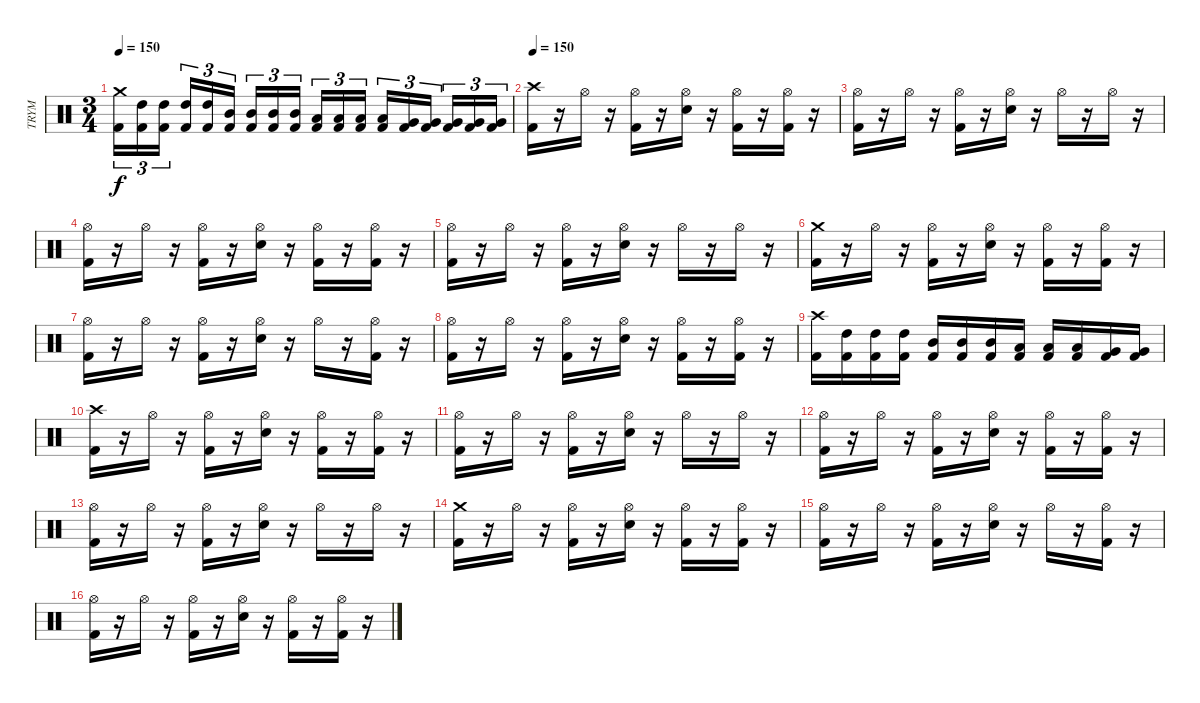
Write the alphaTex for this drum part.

\track ("TRYM" "TRYM") {instrument percussion}
\staff {score}
\articulation defaults
\ts (3 4)
\tempo 150
\clef neutral
\ks c
("Kick (hit) 2" "Crash medium (hit)").16{tu (3 2) dy f} ("Kick (hit) 2" "High Tom (hit)").16{tu (3 2)} ("Kick (hit) 2" "High Tom (hit)").16{tu (3 2)} ("Kick (hit) 2" "High Tom (hit)").16{tu (3 2)} ("Kick (hit) 2" "High Tom (hit)").16{tu (3 2)} ("Kick (hit) 2" "Mid Tom (hit)").16{tu (3 2)} ("Kick (hit) 2" "Mid Tom (hit)").16{tu (3 2)} ("Kick (hit) 2" "Mid Tom (hit)").16{tu (3 2)} ("Kick (hit) 2" "Mid Tom (hit)").16{tu (3 2)} ("Kick (hit) 2" "Low Tom (hit)").16{tu (3 2)} ("Kick (hit) 2" "Low Tom (hit)").16{tu (3 2)} ("Kick (hit) 2" "Low Tom (hit)").16{tu (3 2)} ("Kick (hit) 2" "Low Tom (hit)").16{tu (3 2)} ("Kick (hit) 2" "Very Low Tom (hit)").16{tu (3 2)} ("Kick (hit) 2" "Very Low Tom (hit)").16{tu (3 2)} ("Kick (hit) 2" "Very Low Tom (hit)").16{tu (3 2)} ("Kick (hit) 2" "Very Low Tom (hit)").16{tu (3 2)} ("Kick (hit) 2" "Very Low Tom (hit)").16{tu (3 2)} |
\tempo 150
("Kick (hit) 2" "Crash high (hit)").16 r.16 "Hi-Hat (open)".16 r.16 ("Kick (hit) 2" "Hi-Hat (open)").16 r.16 ("Hi-Hat (open)" "Electric Snare (hit)").16 r.16 ("Kick (hit) 2" "Hi-Hat (open)").16 r.16 ("Kick (hit) 2" "Hi-Hat (open)").16 r.16 |
("Kick (hit) 2" "Hi-Hat (open)").16 r.16 "Hi-Hat (open)".16 r.16 ("Kick (hit) 2" "Hi-Hat (open)").16 r.16 ("Hi-Hat (open)" "Electric Snare (hit)").16 r.16 "Hi-Hat (open)".16 r.16 "Hi-Hat (open)".16 r.16 |
("Kick (hit) 2" "Hi-Hat (open)").16 r.16 "Hi-Hat (open)".16 r.16 ("Kick (hit) 2" "Hi-Hat (open)").16 r.16 ("Hi-Hat (open)" "Electric Snare (hit)").16 r.16 ("Kick (hit) 2" "Hi-Hat (open)").16 r.16 ("Kick (hit) 2" "Hi-Hat (open)").16 r.16 |
("Kick (hit) 2" "Hi-Hat (open)").16 r.16 "Hi-Hat (open)".16 r.16 ("Kick (hit) 2" "Hi-Hat (open)").16 r.16 ("Hi-Hat (open)" "Electric Snare (hit)").16 r.16 "Hi-Hat (open)".16 r.16 "Hi-Hat (open)".16 r.16 |
("Kick (hit) 2" "Crash medium (hit)").16 r.16 "Hi-Hat (open)".16 r.16 ("Kick (hit) 2" "Hi-Hat (open)").16 r.16 ("Hi-Hat (open)" "Electric Snare (hit)").16 r.16 ("Kick (hit) 2" "Hi-Hat (open)").16 r.16 ("Kick (hit) 2" "Hi-Hat (open)").16 r.16 |
("Kick (hit) 2" "Hi-Hat (open)").16 r.16 "Hi-Hat (open)".16 r.16 ("Kick (hit) 2" "Hi-Hat (open)").16 r.16 ("Hi-Hat (open)" "Electric Snare (hit)").16 r.16 "Hi-Hat (open)".16 r.16 ("Kick (hit) 2" "Hi-Hat (open)").16 r.16 |
("Kick (hit) 2" "Hi-Hat (open)").16 r.16 "Hi-Hat (open)".16 r.16 ("Kick (hit) 2" "Hi-Hat (open)").16 r.16 ("Hi-Hat (open)" "Electric Snare (hit)").16 r.16 ("Kick (hit) 2" "Hi-Hat (open)").16 r.16 ("Kick (hit) 2" "Hi-Hat (open)").16 r.16 |
("Kick (hit) 2" "Crash high (hit)").16 ("Kick (hit) 2" "High Tom (hit)").16 ("Kick (hit) 2" "High Tom (hit)").16 ("Kick (hit) 2" "High Tom (hit)").16 ("Kick (hit) 2" "Mid Tom (hit)").16 ("Kick (hit) 2" "Mid Tom (hit)").16 ("Kick (hit) 2" "Mid Tom (hit)").16 ("Kick (hit) 2" "Low Tom (hit)").16 ("Kick (hit) 2" "Low Tom (hit)").16 ("Kick (hit) 2" "Low Tom (hit)").16 ("Kick (hit) 2" "Very Low Tom (hit)").16 ("Kick (hit) 2" "Very Low Tom (hit)").16 |
("Kick (hit) 2" "Crash high (hit)").16 r.16 "Hi-Hat (open)".16 r.16 ("Kick (hit) 2" "Hi-Hat (open)").16 r.16 ("Hi-Hat (open)" "Electric Snare (hit)").16 r.16 ("Kick (hit) 2" "Hi-Hat (open)").16 r.16 ("Kick (hit) 2" "Hi-Hat (open)").16 r.16 |
("Kick (hit) 2" "Hi-Hat (open)").16 r.16 "Hi-Hat (open)".16 r.16 ("Kick (hit) 2" "Hi-Hat (open)").16 r.16 ("Hi-Hat (open)" "Electric Snare (hit)").16 r.16 "Hi-Hat (open)".16 r.16 "Hi-Hat (open)".16 r.16 |
("Kick (hit) 2" "Hi-Hat (open)").16 r.16 "Hi-Hat (open)".16 r.16 ("Kick (hit) 2" "Hi-Hat (open)").16 r.16 ("Hi-Hat (open)" "Electric Snare (hit)").16 r.16 ("Kick (hit) 2" "Hi-Hat (open)").16 r.16 ("Kick (hit) 2" "Hi-Hat (open)").16 r.16 |
("Kick (hit) 2" "Hi-Hat (open)").16 r.16 "Hi-Hat (open)".16 r.16 ("Kick (hit) 2" "Hi-Hat (open)").16 r.16 ("Hi-Hat (open)" "Electric Snare (hit)").16 r.16 "Hi-Hat (open)".16 r.16 "Hi-Hat (open)".16 r.16 |
("Kick (hit) 2" "Crash medium (hit)").16 r.16 "Hi-Hat (open)".16 r.16 ("Kick (hit) 2" "Hi-Hat (open)").16 r.16 ("Hi-Hat (open)" "Electric Snare (hit)").16 r.16 ("Kick (hit) 2" "Hi-Hat (open)").16 r.16 ("Kick (hit) 2" "Hi-Hat (open)").16 r.16 |
("Kick (hit) 2" "Hi-Hat (open)").16 r.16 "Hi-Hat (open)".16 r.16 ("Kick (hit) 2" "Hi-Hat (open)").16 r.16 ("Hi-Hat (open)" "Electric Snare (hit)").16 r.16 "Hi-Hat (open)".16 r.16 ("Kick (hit) 2" "Hi-Hat (open)").16 r.16 |
("Kick (hit) 2" "Hi-Hat (open)").16 r.16 "Hi-Hat (open)".16 r.16 ("Kick (hit) 2" "Hi-Hat (open)").16 r.16 ("Hi-Hat (open)" "Electric Snare (hit)").16 r.16 ("Kick (hit) 2" "Hi-Hat (open)").16 r.16 ("Kick (hit) 2" "Hi-Hat (open)").16 r.16
